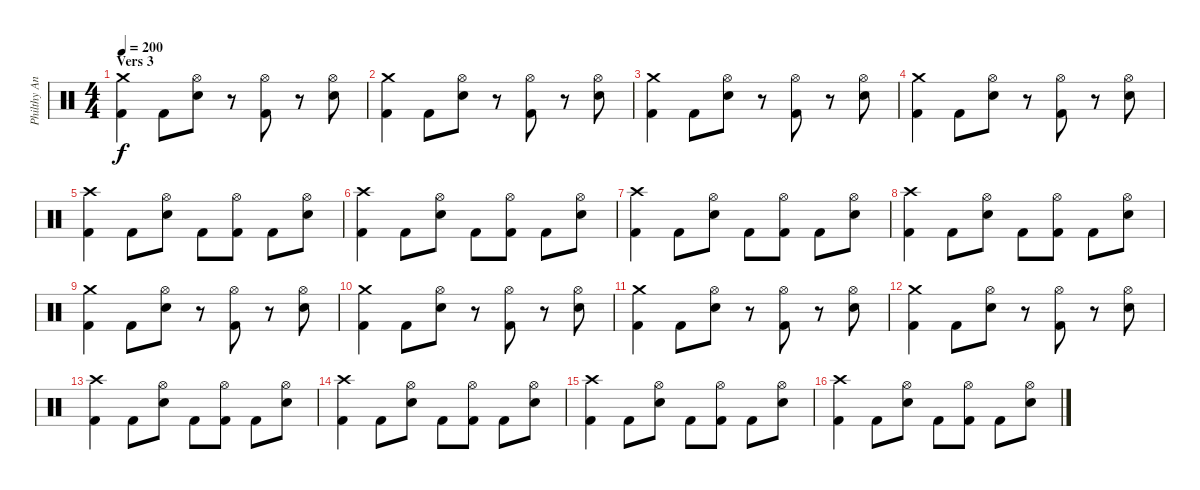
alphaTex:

\track ("Philthy Animal Taylor" "Philthy An") {instrument percussion}
\staff {score}
\articulation defaults
\ts (4 4)
\section ("" "Vers 3")
\tempo 200
\clef neutral
\ks c
("Crash medium (hit)" "Kick (hit) 2").4{dy f} "Kick (hit) 2".8 ("Hi-Hat (open)" "Snare (hit) 2").8 r.8 ("Hi-Hat (open)" "Kick (hit) 2").8 r.8 ("Hi-Hat (open)" "Snare (hit) 2").8 |
("Crash medium (hit)" "Kick (hit) 2").4 "Kick (hit) 2".8 ("Hi-Hat (open)" "Snare (hit) 2").8 r.8 ("Hi-Hat (open)" "Kick (hit) 2").8 r.8 ("Hi-Hat (open)" "Snare (hit) 2").8 |
("Crash medium (hit)" "Kick (hit) 2").4 "Kick (hit) 2".8 ("Hi-Hat (open)" "Snare (hit) 2").8 r.8 ("Hi-Hat (open)" "Kick (hit) 2").8 r.8 ("Hi-Hat (open)" "Snare (hit) 2").8 |
("Crash medium (hit)" "Kick (hit) 2").4 "Kick (hit) 2".8 ("Hi-Hat (open)" "Snare (hit) 2").8 r.8 ("Hi-Hat (open)" "Kick (hit) 2").8 r.8 ("Hi-Hat (open)" "Snare (hit) 2").8 |
("Crash high (hit)" "Kick (hit) 2").4 "Kick (hit) 2".8 ("Hi-Hat (open)" "Snare (hit) 2").8 "Kick (hit) 2".8 ("Hi-Hat (open)" "Kick (hit) 2").8 "Kick (hit) 2".8 ("Hi-Hat (open)" "Snare (hit) 2").8 |
("Crash high (hit)" "Kick (hit) 2").4 "Kick (hit) 2".8 ("Hi-Hat (open)" "Snare (hit) 2").8 "Kick (hit) 2".8 ("Hi-Hat (open)" "Kick (hit) 2").8 "Kick (hit) 2".8 ("Hi-Hat (open)" "Snare (hit) 2").8 |
("Crash high (hit)" "Kick (hit) 2").4 "Kick (hit) 2".8 ("Hi-Hat (open)" "Snare (hit) 2").8 "Kick (hit) 2".8 ("Hi-Hat (open)" "Kick (hit) 2").8 "Kick (hit) 2".8 ("Hi-Hat (open)" "Snare (hit) 2").8 |
("Crash high (hit)" "Kick (hit) 2").4 "Kick (hit) 2".8 ("Hi-Hat (open)" "Snare (hit) 2").8 "Kick (hit) 2".8 ("Hi-Hat (open)" "Kick (hit) 2").8 "Kick (hit) 2".8 ("Hi-Hat (open)" "Snare (hit) 2").8 |
("Crash medium (hit)" "Kick (hit) 2").4 "Kick (hit) 2".8 ("Hi-Hat (open)" "Snare (hit) 2").8 r.8 ("Hi-Hat (open)" "Kick (hit) 2").8 r.8 ("Hi-Hat (open)" "Snare (hit) 2").8 |
("Crash medium (hit)" "Kick (hit) 2").4 "Kick (hit) 2".8 ("Hi-Hat (open)" "Snare (hit) 2").8 r.8 ("Hi-Hat (open)" "Kick (hit) 2").8 r.8 ("Hi-Hat (open)" "Snare (hit) 2").8 |
("Crash medium (hit)" "Kick (hit) 2").4 "Kick (hit) 2".8 ("Hi-Hat (open)" "Snare (hit) 2").8 r.8 ("Hi-Hat (open)" "Kick (hit) 2").8 r.8 ("Hi-Hat (open)" "Snare (hit) 2").8 |
("Crash medium (hit)" "Kick (hit) 2").4 "Kick (hit) 2".8 ("Hi-Hat (open)" "Snare (hit) 2").8 r.8 ("Hi-Hat (open)" "Kick (hit) 2").8 r.8 ("Hi-Hat (open)" "Snare (hit) 2").8 |
("Crash high (hit)" "Kick (hit) 2").4 "Kick (hit) 2".8 ("Hi-Hat (open)" "Snare (hit) 2").8 "Kick (hit) 2".8 ("Hi-Hat (open)" "Kick (hit) 2").8 "Kick (hit) 2".8 ("Hi-Hat (open)" "Snare (hit) 2").8 |
("Crash high (hit)" "Kick (hit) 2").4 "Kick (hit) 2".8 ("Hi-Hat (open)" "Snare (hit) 2").8 "Kick (hit) 2".8 ("Hi-Hat (open)" "Kick (hit) 2").8 "Kick (hit) 2".8 ("Hi-Hat (open)" "Snare (hit) 2").8 |
("Crash high (hit)" "Kick (hit) 2").4 "Kick (hit) 2".8 ("Hi-Hat (open)" "Snare (hit) 2").8 "Kick (hit) 2".8 ("Hi-Hat (open)" "Kick (hit) 2").8 "Kick (hit) 2".8 ("Hi-Hat (open)" "Snare (hit) 2").8 |
("Crash high (hit)" "Kick (hit) 2").4 "Kick (hit) 2".8 ("Hi-Hat (open)" "Snare (hit) 2").8 "Kick (hit) 2".8 ("Hi-Hat (open)" "Kick (hit) 2").8 "Kick (hit) 2".8 ("Hi-Hat (open)" "Snare (hit) 2").8
